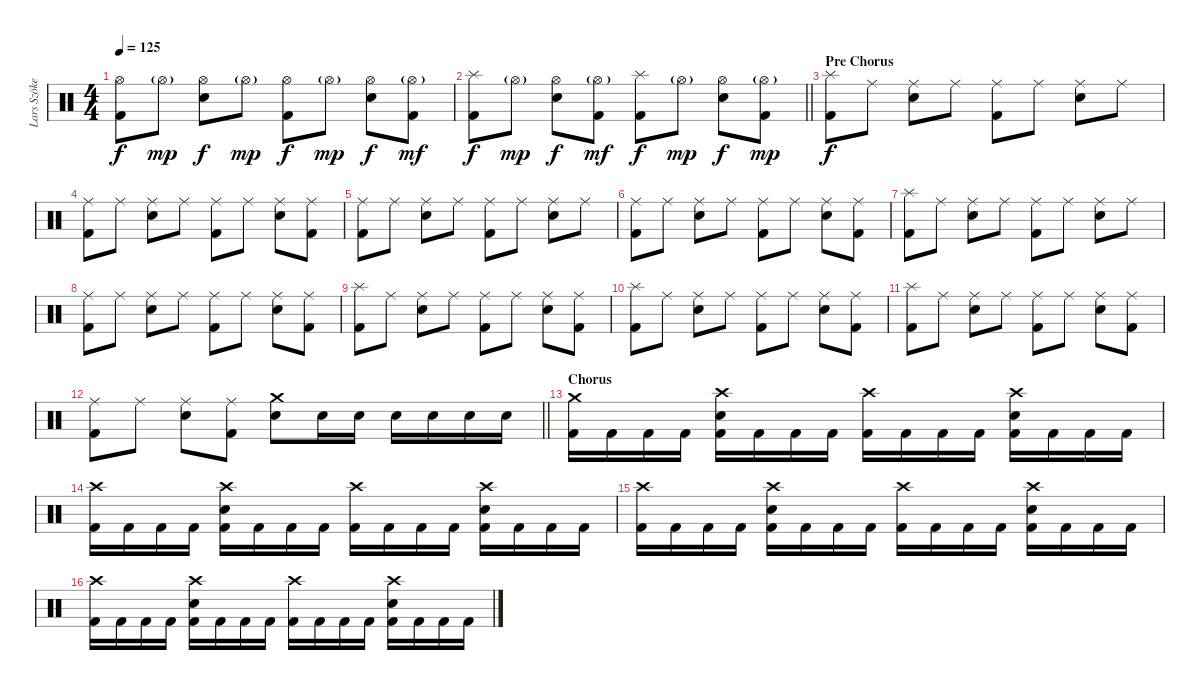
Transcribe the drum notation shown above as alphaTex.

\track ("Lars Szöke" "Lars Szöke") {instrument percussion}
\staff {score}
\articulation defaults
\ts (4 4)
\tempo 125
\clef neutral
\ks c
("Hi-Hat (open)" "Kick (hit) 2").8{dy f} "Hi-Hat (open)"{g}.8{dy mp} ("Hi-Hat (open)" "Snare (hit) 2").8{dy f} "Hi-Hat (open)"{g}.8{dy mp} ("Hi-Hat (open)" "Kick (hit) 2").8{dy f} "Hi-Hat (open)"{g}.8{dy mp} ("Hi-Hat (open)" "Snare (hit) 2").8{dy f} ("Hi-Hat (open)"{g} "Kick (hit) 2").8{dy mf} |
\barLineRight lightlight
("Splash (hit)" "Kick (hit) 2").8{dy f} "Hi-Hat (open)"{g}.8{dy mp} ("Hi-Hat (open)" "Snare (hit) 2").8{dy f} ("Hi-Hat (open)"{g} "Kick (hit) 2").8{dy mf} ("Splash (hit)" "Kick (hit) 2").8{dy f} "Hi-Hat (open)"{g}.8{dy mp} ("Hi-Hat (open)" "Snare (hit) 2").8{dy f} ("Hi-Hat (open)"{g} "Kick (hit) 2").8{dy mp} |
\section ("" "Pre Chorus")
("Splash (hit)" "Kick (hit) 2").8{dy f} "Ride (middle)".8 ("Ride (middle)" "Snare (hit) 2").8 "Ride (middle)".8 ("Ride (middle)" "Kick (hit) 2").8 "Ride (middle)".8 ("Ride (middle)" "Snare (hit) 2").8 "Ride (middle)".8 |
("Ride (middle)" "Kick (hit) 2").8 "Ride (middle)".8 ("Ride (middle)" "Snare (hit) 2").8 "Ride (middle)".8 ("Ride (middle)" "Kick (hit) 2").8 "Ride (middle)".8 ("Ride (middle)" "Snare (hit) 2").8 ("Ride (middle)" "Kick (hit) 2").8 |
("Ride (middle)" "Kick (hit) 2").8 "Ride (middle)".8 ("Ride (middle)" "Snare (hit) 2").8 "Ride (middle)".8 ("Ride (middle)" "Kick (hit) 2").8 "Ride (middle)".8 ("Ride (middle)" "Snare (hit) 2").8 "Ride (middle)".8 |
("Ride (middle)" "Kick (hit) 2").8 "Ride (middle)".8 ("Ride (middle)" "Snare (hit) 2").8 "Ride (middle)".8 ("Ride (middle)" "Kick (hit) 2").8 "Ride (middle)".8 ("Ride (middle)" "Snare (hit) 2").8 ("Ride (middle)" "Kick (hit) 2").8 |
("Splash (hit)" "Kick (hit) 2").8 "Ride (middle)".8 ("Ride (middle)" "Snare (hit) 2").8 "Ride (middle)".8 ("Ride (middle)" "Kick (hit) 2").8 "Ride (middle)".8 ("Ride (middle)" "Snare (hit) 2").8 "Ride (middle)".8 |
("Ride (middle)" "Kick (hit) 2").8 "Ride (middle)".8 ("Ride (middle)" "Snare (hit) 2").8 "Ride (middle)".8 ("Ride (middle)" "Kick (hit) 2").8 "Ride (middle)".8 ("Ride (middle)" "Snare (hit) 2").8 ("Ride (middle)" "Kick (hit) 2").8 |
("Splash (hit)" "Kick (hit) 2").8 "Ride (middle)".8 ("Ride (middle)" "Snare (hit) 2").8 "Ride (middle)".8 ("Ride (middle)" "Kick (hit) 2").8 "Ride (middle)".8 ("Ride (middle)" "Snare (hit) 2").8 ("Ride (middle)" "Kick (hit) 2").8 |
("Splash (hit)" "Kick (hit) 2").8 "Ride (middle)".8 ("Ride (middle)" "Snare (hit) 2").8 "Ride (middle)".8 ("Ride (middle)" "Kick (hit) 2").8 "Ride (middle)".8 ("Ride (middle)" "Snare (hit) 2").8 ("Ride (middle)" "Kick (hit) 2").8 |
("Splash (hit)" "Kick (hit) 2").8 "Ride (middle)".8 ("Ride (middle)" "Snare (hit) 2").8 "Ride (middle)".8 ("Ride (middle)" "Kick (hit) 2").8 "Ride (middle)".8 ("Ride (middle)" "Snare (hit) 2").8 ("Ride (middle)" "Kick (hit) 2").8 |
\barLineRight lightlight
("Ride (middle)" "Kick (hit) 2").8 "Ride (middle)".8 ("Ride (middle)" "Snare (hit) 2").8 ("Ride (middle)" "Kick (hit) 2").8 ("Crash medium (hit)" "Snare (hit) 2").8 "Snare (hit) 2".16 "Snare (hit) 2".16 "Snare (hit) 2".16 "Snare (hit) 2".16 "Snare (hit) 2".16 "Snare (hit) 2".16 |
\section ("" "Chorus")
("Crash medium (hit)" "Kick (hit) 2").16 "Kick (hit) 2".16 "Kick (hit) 2".16 "Kick (hit) 2".16 ("Crash high (hit)" "Snare (hit) 2" "Kick (hit) 2").16 "Kick (hit) 2".16 "Kick (hit) 2".16 "Kick (hit) 2".16 ("Crash high (hit)" "Kick (hit) 2").16 "Kick (hit) 2".16 "Kick (hit) 2".16 "Kick (hit) 2".16 ("Crash high (hit)" "Snare (hit) 2" "Kick (hit) 2").16 "Kick (hit) 2".16 "Kick (hit) 2".16 "Kick (hit) 2".16 |
("Crash high (hit)" "Kick (hit) 2").16 "Kick (hit) 2".16 "Kick (hit) 2".16 "Kick (hit) 2".16 ("Crash high (hit)" "Snare (hit) 2" "Kick (hit) 2").16 "Kick (hit) 2".16 "Kick (hit) 2".16 "Kick (hit) 2".16 ("Crash high (hit)" "Kick (hit) 2").16 "Kick (hit) 2".16 "Kick (hit) 2".16 "Kick (hit) 2".16 ("Crash high (hit)" "Snare (hit) 2" "Kick (hit) 2").16 "Kick (hit) 2".16 "Kick (hit) 2".16 "Kick (hit) 2".16 |
("Crash high (hit)" "Kick (hit) 2").16 "Kick (hit) 2".16 "Kick (hit) 2".16 "Kick (hit) 2".16 ("Crash high (hit)" "Snare (hit) 2" "Kick (hit) 2").16 "Kick (hit) 2".16 "Kick (hit) 2".16 "Kick (hit) 2".16 ("Crash high (hit)" "Kick (hit) 2").16 "Kick (hit) 2".16 "Kick (hit) 2".16 "Kick (hit) 2".16 ("Crash high (hit)" "Snare (hit) 2" "Kick (hit) 2").16 "Kick (hit) 2".16 "Kick (hit) 2".16 "Kick (hit) 2".16 |
("Crash high (hit)" "Kick (hit) 2").16 "Kick (hit) 2".16 "Kick (hit) 2".16 "Kick (hit) 2".16 ("Crash high (hit)" "Snare (hit) 2" "Kick (hit) 2").16 "Kick (hit) 2".16 "Kick (hit) 2".16 "Kick (hit) 2".16 ("Crash high (hit)" "Kick (hit) 2").16 "Kick (hit) 2".16 "Kick (hit) 2".16 "Kick (hit) 2".16 ("Crash high (hit)" "Snare (hit) 2" "Kick (hit) 2").16 "Kick (hit) 2".16 "Kick (hit) 2".16 "Kick (hit) 2".16
